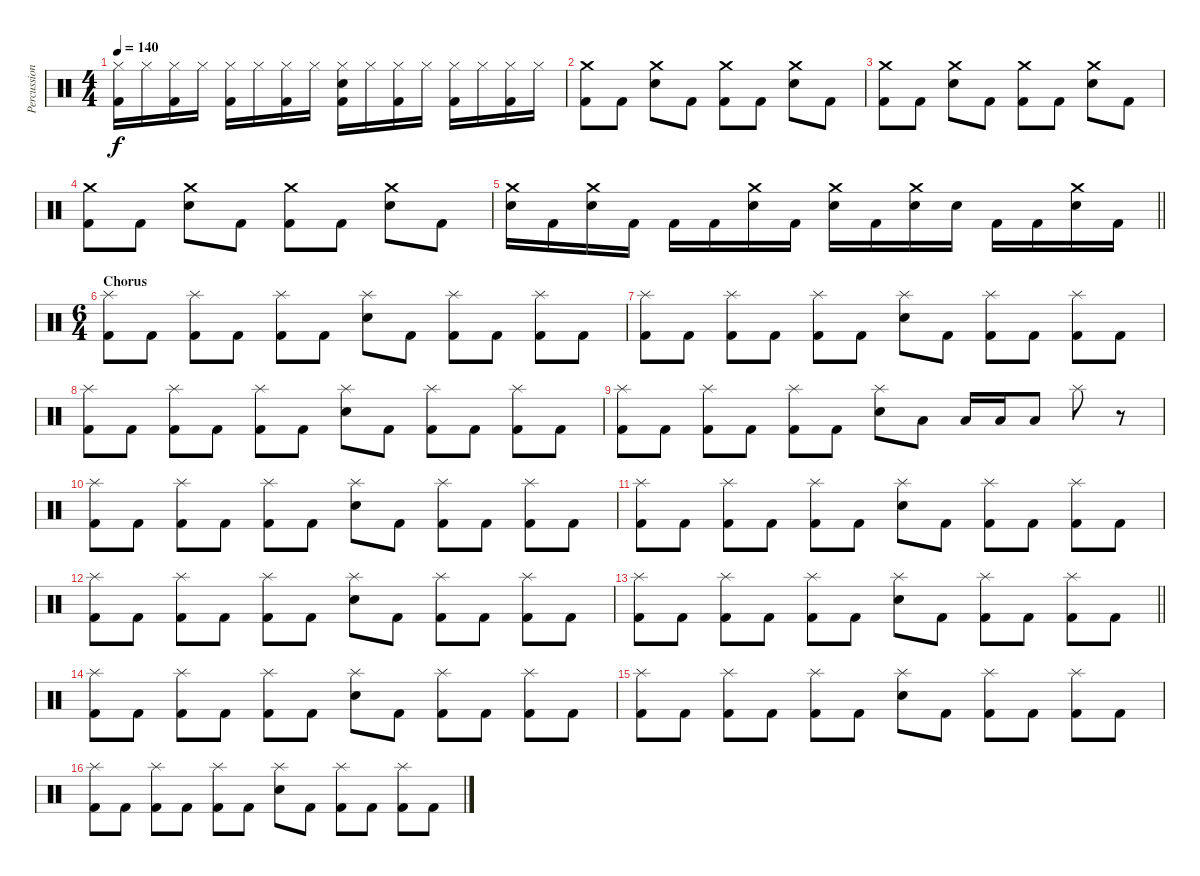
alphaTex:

\track ("Percussion" "Percussion") {instrument percussion}
\staff {score}
\articulation defaults
\ts (4 4)
\tempo 140
\clef neutral
\ks c
("Hi-Hat (closed)" "Kick (hit) 2").16{dy f} "Hi-Hat (closed)".16 ("Hi-Hat (closed)" "Kick (hit) 2").16 "Hi-Hat (closed)".16 ("Hi-Hat (closed)" "Kick (hit) 2").16 "Hi-Hat (closed)".16 ("Hi-Hat (closed)" "Kick (hit) 2").16 "Hi-Hat (closed)".16 ("Hi-Hat (closed)" "Electric Snare (hit)" "Kick (hit) 2").16 "Hi-Hat (closed)".16 ("Hi-Hat (closed)" "Kick (hit) 2").16 "Hi-Hat (closed)".16 ("Hi-Hat (closed)" "Kick (hit) 2").16 "Hi-Hat (closed)".16 ("Hi-Hat (closed)" "Kick (hit) 2").16 "Hi-Hat (closed)".16 |
("Crash medium (hit)" "Kick (hit) 2").8 "Kick (hit) 2".8 ("Crash medium (hit)" "Electric Snare (hit)").8 "Kick (hit) 2".8 ("Crash medium (hit)" "Kick (hit) 2").8 "Kick (hit) 2".8 ("Crash medium (hit)" "Electric Snare (hit)").8 "Kick (hit) 2".8 |
("Crash medium (hit)" "Kick (hit) 2").8 "Kick (hit) 2".8 ("Crash medium (hit)" "Electric Snare (hit)").8 "Kick (hit) 2".8 ("Crash medium (hit)" "Kick (hit) 2").8 "Kick (hit) 2".8 ("Crash medium (hit)" "Electric Snare (hit)").8 "Kick (hit) 2".8 |
("Crash medium (hit)" "Kick (hit) 2").8 "Kick (hit) 2".8 ("Crash medium (hit)" "Electric Snare (hit)").8 "Kick (hit) 2".8 ("Crash medium (hit)" "Kick (hit) 2").8 "Kick (hit) 2".8 ("Crash medium (hit)" "Electric Snare (hit)").8 "Kick (hit) 2".8 |
\barLineRight lightlight
("Crash medium (hit)" "Electric Snare (hit)").16 "Kick (hit) 2".16 ("Crash medium (hit)" "Electric Snare (hit)").16 "Kick (hit) 2".16 "Kick (hit) 2".16 "Kick (hit) 2".16 ("Crash medium (hit)" "Electric Snare (hit)").16 "Kick (hit) 2".16 ("Crash medium (hit)" "Electric Snare (hit)").16 "Kick (hit) 2".16 ("Crash medium (hit)" "Electric Snare (hit)").16 "Electric Snare (hit)".16 "Kick (hit) 2".16 "Kick (hit) 2".16 ("Crash medium (hit)" "Electric Snare (hit)").16 "Kick (hit) 2".16 |
\ts (6 4)
\section ("" "Chorus")
("Splash (hit)" "Kick (hit) 2").8 "Kick (hit) 2".8 ("Splash (hit)" "Kick (hit) 2").8 "Kick (hit) 2".8 ("Splash (hit)" "Kick (hit) 2").8 "Kick (hit) 2".8 ("Splash (hit)" "Electric Snare (hit)").8 "Kick (hit) 2".8 ("Splash (hit)" "Kick (hit) 2").8 "Kick (hit) 2".8 ("Splash (hit)" "Kick (hit) 2").8 "Kick (hit) 2".8 |
("Splash (hit)" "Kick (hit) 2").8 "Kick (hit) 2".8 ("Splash (hit)" "Kick (hit) 2").8 "Kick (hit) 2".8 ("Splash (hit)" "Kick (hit) 2").8 "Kick (hit) 2".8 ("Splash (hit)" "Electric Snare (hit)").8 "Kick (hit) 2".8 ("Splash (hit)" "Kick (hit) 2").8 "Kick (hit) 2".8 ("Splash (hit)" "Kick (hit) 2").8 "Kick (hit) 2".8 |
("Splash (hit)" "Kick (hit) 2").8 "Kick (hit) 2".8 ("Splash (hit)" "Kick (hit) 2").8 "Kick (hit) 2".8 ("Splash (hit)" "Kick (hit) 2").8 "Kick (hit) 2".8 ("Splash (hit)" "Electric Snare (hit)").8 "Kick (hit) 2".8 ("Splash (hit)" "Kick (hit) 2").8 "Kick (hit) 2".8 ("Splash (hit)" "Kick (hit) 2").8 "Kick (hit) 2".8 |
("Splash (hit)" "Kick (hit) 2").8 "Kick (hit) 2".8 ("Splash (hit)" "Kick (hit) 2").8 "Kick (hit) 2".8 ("Splash (hit)" "Kick (hit) 2").8 "Kick (hit) 2".8 ("Splash (hit)" "Electric Snare (hit)").8 "Low Tom (hit)".8 "Low Tom (hit)".16 "Low Tom (hit)".16 "Low Tom (hit)".8 "Splash (hit)".8 r.8 |
("Splash (hit)" "Kick (hit) 2").8 "Kick (hit) 2".8 ("Splash (hit)" "Kick (hit) 2").8 "Kick (hit) 2".8 ("Splash (hit)" "Kick (hit) 2").8 "Kick (hit) 2".8 ("Splash (hit)" "Electric Snare (hit)").8 "Kick (hit) 2".8 ("Splash (hit)" "Kick (hit) 2").8 "Kick (hit) 2".8 ("Splash (hit)" "Kick (hit) 2").8 "Kick (hit) 2".8 |
("Splash (hit)" "Kick (hit) 2").8 "Kick (hit) 2".8 ("Splash (hit)" "Kick (hit) 2").8 "Kick (hit) 2".8 ("Splash (hit)" "Kick (hit) 2").8 "Kick (hit) 2".8 ("Splash (hit)" "Electric Snare (hit)").8 "Kick (hit) 2".8 ("Splash (hit)" "Kick (hit) 2").8 "Kick (hit) 2".8 ("Splash (hit)" "Kick (hit) 2").8 "Kick (hit) 2".8 |
("Splash (hit)" "Kick (hit) 2").8 "Kick (hit) 2".8 ("Splash (hit)" "Kick (hit) 2").8 "Kick (hit) 2".8 ("Splash (hit)" "Kick (hit) 2").8 "Kick (hit) 2".8 ("Splash (hit)" "Electric Snare (hit)").8 "Kick (hit) 2".8 ("Splash (hit)" "Kick (hit) 2").8 "Kick (hit) 2".8 ("Splash (hit)" "Kick (hit) 2").8 "Kick (hit) 2".8 |
\barLineRight lightlight
("Splash (hit)" "Kick (hit) 2").8 "Kick (hit) 2".8 ("Splash (hit)" "Kick (hit) 2").8 "Kick (hit) 2".8 ("Splash (hit)" "Kick (hit) 2").8 "Kick (hit) 2".8 ("Splash (hit)" "Electric Snare (hit)").8 "Kick (hit) 2".8 ("Splash (hit)" "Kick (hit) 2").8 "Kick (hit) 2".8 ("Splash (hit)" "Kick (hit) 2").8 "Kick (hit) 2".8 |
\section ("" "")
("Splash (hit)" "Kick (hit) 2").8 "Kick (hit) 2".8 ("Splash (hit)" "Kick (hit) 2").8 "Kick (hit) 2".8 ("Splash (hit)" "Kick (hit) 2").8 "Kick (hit) 2".8 ("Splash (hit)" "Electric Snare (hit)").8 "Kick (hit) 2".8 ("Splash (hit)" "Kick (hit) 2").8 "Kick (hit) 2".8 ("Splash (hit)" "Kick (hit) 2").8 "Kick (hit) 2".8 |
("Splash (hit)" "Kick (hit) 2").8 "Kick (hit) 2".8 ("Splash (hit)" "Kick (hit) 2").8 "Kick (hit) 2".8 ("Splash (hit)" "Kick (hit) 2").8 "Kick (hit) 2".8 ("Splash (hit)" "Electric Snare (hit)").8 "Kick (hit) 2".8 ("Splash (hit)" "Kick (hit) 2").8 "Kick (hit) 2".8 ("Splash (hit)" "Kick (hit) 2").8 "Kick (hit) 2".8 |
("Splash (hit)" "Kick (hit) 2").8 "Kick (hit) 2".8 ("Splash (hit)" "Kick (hit) 2").8 "Kick (hit) 2".8 ("Splash (hit)" "Kick (hit) 2").8 "Kick (hit) 2".8 ("Splash (hit)" "Electric Snare (hit)").8 "Kick (hit) 2".8 ("Splash (hit)" "Kick (hit) 2").8 "Kick (hit) 2".8 ("Splash (hit)" "Kick (hit) 2").8 "Kick (hit) 2".8
